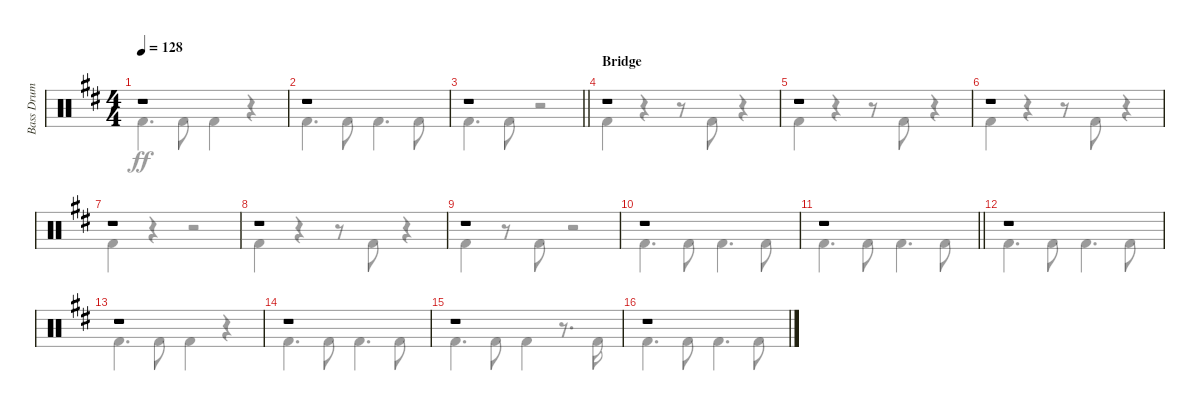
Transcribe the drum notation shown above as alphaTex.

\track ("Bass Drum" "Bass Drum") {instrument percussion}
\staff {score}
\articulation defaults
\voice
\ts (4 4)
\tempo 128
\clef neutral
\ks bminor
r.1{dy f} |
r.1 |
\barLineRight lightlight
r.1 |
\section ("" "Bridge")
r.1 |
r.1 |
r.1 |
r.1 |
r.1 |
r.1 |
r.1 |
\barLineRight lightlight
r.1 |
r.1 |
r.1 |
r.1 |
r.1 |
r.1
\voice
\clef neutral
\ottava regular
\simile none
\ks bminor "Kick (hit) 2".4{d dy ff} "Kick (hit) 2".8 "Kick (hit) 2".4
r.4 |
"Kick (hit) 2".4{d} "Kick (hit) 2".8 "Kick (hit) 2".4{d} "Kick (hit) 2".8 |
\barLineRight lightlight "Kick (hit) 2".4{d} "Kick (hit) 2".8
r.2 |
"Kick (hit) 2".4 r.4 r.8 "Kick (hit) 2".8 r.4 |
"Kick (hit) 2".4 r.4 r.8 "Kick (hit) 2".8 r.4 |
"Kick (hit) 2".4 r.4 r.8 "Kick (hit) 2".8 r.4 |
"Kick (hit) 2".4 r.4 r.2 |
"Kick (hit) 2".4 r.4 r.8 "Kick (hit) 2".8 r.4 |
"Kick (hit) 2".4 r.8 "Kick (hit) 2".8 r.2 |
"Kick (hit) 2".4{d} "Kick (hit) 2".8 "Kick (hit) 2".4{d} "Kick (hit) 2".8 |
\barLineRight lightlight "Kick (hit) 2".4{d} "Kick (hit) 2".8 "Kick (hit) 2".4{d} "Kick (hit) 2".8
|
"Kick (hit) 2".4{d} "Kick (hit) 2".8 "Kick (hit) 2".4{d} "Kick (hit) 2".8 |
"Kick (hit) 2".4{d} "Kick (hit) 2".8 "Kick (hit) 2".4 r.4 |
"Kick (hit) 2".4{d} "Kick (hit) 2".8 "Kick (hit) 2".4{d} "Kick (hit) 2".8 |
"Kick (hit) 2".4{d} "Kick (hit) 2".8 "Kick (hit) 2".4 r.8{d} "Kick (hit) 2".16 |
"Kick (hit) 2".4{d} "Kick (hit) 2".8 "Kick (hit) 2".4{d} "Kick (hit) 2".8
